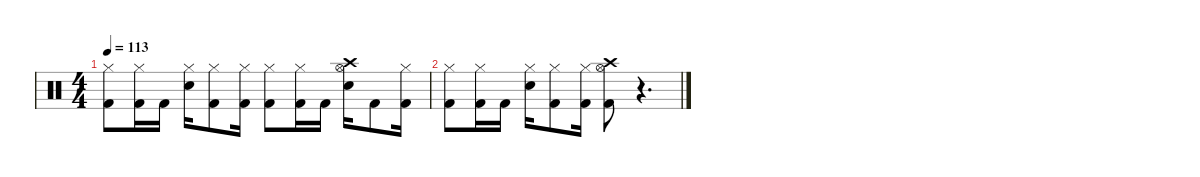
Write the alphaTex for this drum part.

\defaultSystemsLayout 4
\hideDynamics
\bracketExtendMode nobrackets
\singleTrackTrackNamePolicy hidden
\multiTrackTrackNamePolicy hidden
\firstSystemTrackNameMode fullname
\firstSystemTrackNameOrientation horizontal
\otherSystemsTrackNameOrientation horizontal
\track ("Drums" "drm.") {instrument percussion}
\staff {score}
\articulation defaults
\ts (4 4)
\tempo 113
\clef neutral
\ks c
("Hi-Hat (closed)" "Kick (hit) 2").8{dy f beam Down} ("Hi-Hat (closed)" "Kick (hit) 2").16{beam Down} "Kick (hit) 2".16{beam Down} ("Hi-Hat (closed)" "Snare (hit) 2").16{beam Down} ("Hi-Hat (closed)" "Kick (hit) 2").8{beam Down} ("Hi-Hat (closed)" "Kick (hit) 2").16{beam Down} ("Hi-Hat (closed)" "Kick (hit) 2").8{beam Down} ("Hi-Hat (closed)" "Kick (hit) 2").16{beam Down} "Kick (hit) 2".16{beam Down} ("Hi-Hat (open)" "Crash high (hit)" "Snare (hit) 2").16{beam Down} "Kick (hit) 2".8{beam Down} ("Hi-Hat (closed)" "Kick (hit) 2").16{beam Down} |
("Hi-Hat (closed)" "Kick (hit) 2").8{beam Down} ("Hi-Hat (closed)" "Kick (hit) 2").16{beam Down} "Kick (hit) 2".16{beam Down} ("Hi-Hat (closed)" "Snare (hit) 2").16{beam Down} ("Hi-Hat (closed)" "Kick (hit) 2").8{beam Down} ("Hi-Hat (closed)" "Kick (hit) 2").16{beam Down} ("Hi-Hat (open)" "Crash high (hit)" "Kick (hit) 2").8{beam Down} r.4{d beam Down}
